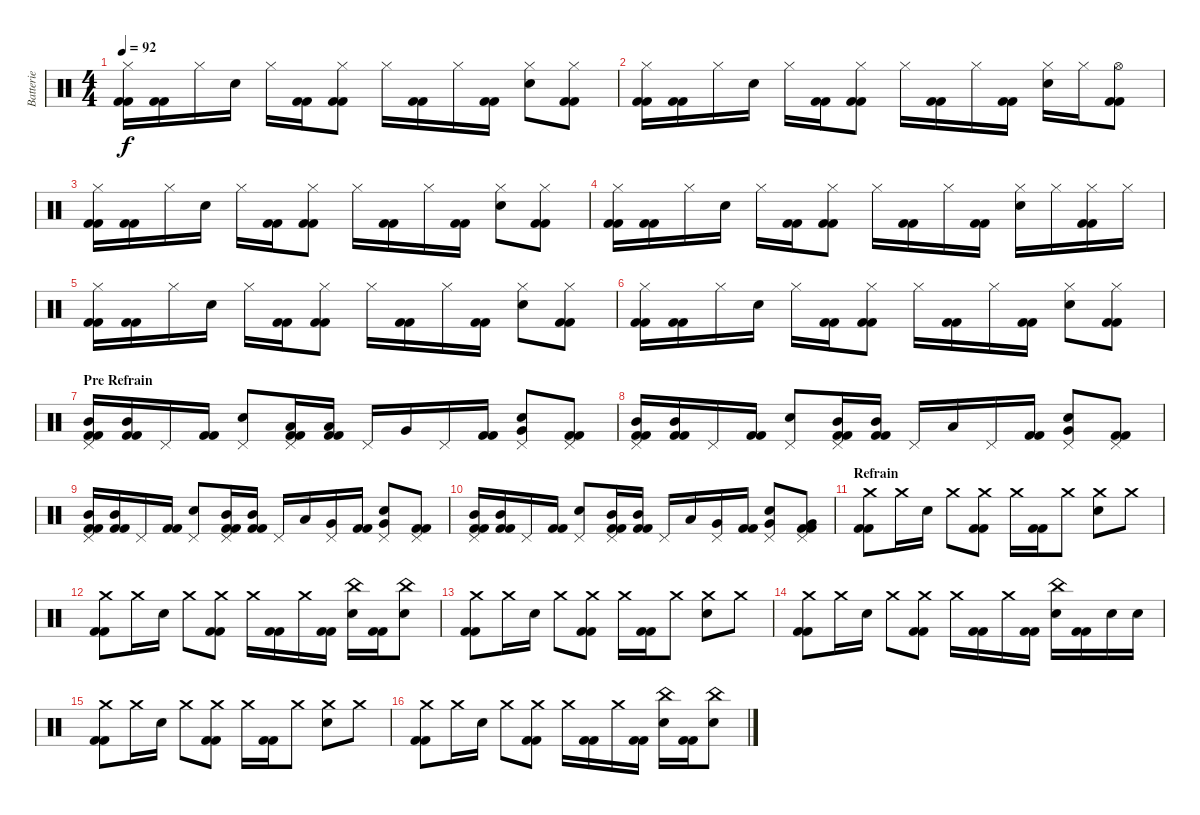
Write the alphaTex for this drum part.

\track ("Batterie" "Batterie") {instrument percussion}
\staff {score}
\articulation defaults
\ts (4 4)
\tempo 92
\clef neutral
\ks c
("Kick (hit) 2" "Hi-Hat (closed)" "Kick (hit) 2").16{dy f} ("Kick (hit) 2" "Kick (hit) 2").16 "Hi-Hat (closed)".16 "Electric Snare (hit)".16 "Hi-Hat (closed)".16 ("Kick (hit) 2" "Kick (hit) 2").16 ("Kick (hit) 2" "Hi-Hat (closed)" "Kick (hit) 2").8 "Hi-Hat (closed)".16 ("Kick (hit) 2" "Kick (hit) 2").16 "Hi-Hat (closed)".16 ("Kick (hit) 2" "Kick (hit) 2").16 ("Hi-Hat (closed)" "Electric Snare (hit)").8 ("Kick (hit) 2" "Hi-Hat (closed)" "Kick (hit) 2").8 |
("Kick (hit) 2" "Hi-Hat (closed)" "Kick (hit) 2").16 ("Kick (hit) 2" "Kick (hit) 2").16 "Hi-Hat (closed)".16 "Electric Snare (hit)".16 "Hi-Hat (closed)".16 ("Kick (hit) 2" "Kick (hit) 2").16 ("Kick (hit) 2" "Hi-Hat (closed)" "Kick (hit) 2").8 "Hi-Hat (closed)".16 ("Kick (hit) 2" "Kick (hit) 2").16 "Hi-Hat (closed)".16 ("Kick (hit) 2" "Kick (hit) 2").16 ("Hi-Hat (closed)" "Electric Snare (hit)").16 "Hi-Hat (closed)".16 ("Kick (hit) 2" "Hi-Hat (open)" "Kick (hit) 2").8 |
("Kick (hit) 2" "Hi-Hat (closed)" "Kick (hit) 2").16 ("Kick (hit) 2" "Kick (hit) 2").16 "Hi-Hat (closed)".16 "Electric Snare (hit)".16 "Hi-Hat (closed)".16 ("Kick (hit) 2" "Kick (hit) 2").16 ("Kick (hit) 2" "Hi-Hat (closed)" "Kick (hit) 2").8 "Hi-Hat (closed)".16 ("Kick (hit) 2" "Kick (hit) 2").16 "Hi-Hat (closed)".16 ("Kick (hit) 2" "Kick (hit) 2").16 ("Hi-Hat (closed)" "Electric Snare (hit)").8 ("Kick (hit) 2" "Hi-Hat (closed)" "Kick (hit) 2").8 |
("Kick (hit) 2" "Hi-Hat (closed)" "Kick (hit) 2").16 ("Kick (hit) 2" "Kick (hit) 2").16 "Hi-Hat (closed)".16 "Electric Snare (hit)".16 "Hi-Hat (closed)".16 ("Kick (hit) 2" "Kick (hit) 2").16 ("Kick (hit) 2" "Hi-Hat (closed)" "Kick (hit) 2").8 "Hi-Hat (closed)".16 ("Kick (hit) 2" "Kick (hit) 2").16 "Hi-Hat (closed)".16 ("Kick (hit) 2" "Kick (hit) 2").16 ("Hi-Hat (closed)" "Electric Snare (hit)").16 "Hi-Hat (closed)".16 ("Kick (hit) 2" "Hi-Hat (closed)" "Kick (hit) 2").16 "Hi-Hat (closed)".16 |
("Kick (hit) 2" "Hi-Hat (closed)" "Kick (hit) 2").16 ("Kick (hit) 2" "Kick (hit) 2").16 "Hi-Hat (closed)".16 "Electric Snare (hit)".16 "Hi-Hat (closed)".16 ("Kick (hit) 2" "Kick (hit) 2").16 ("Kick (hit) 2" "Hi-Hat (closed)" "Kick (hit) 2").8 "Hi-Hat (closed)".16 ("Kick (hit) 2" "Kick (hit) 2").16 "Hi-Hat (closed)".16 ("Kick (hit) 2" "Kick (hit) 2").16 ("Hi-Hat (closed)" "Electric Snare (hit)").8 ("Kick (hit) 2" "Hi-Hat (closed)" "Kick (hit) 2").8 |
("Kick (hit) 2" "Hi-Hat (closed)" "Kick (hit) 2").16 ("Kick (hit) 2" "Kick (hit) 2").16 "Hi-Hat (closed)".16 "Electric Snare (hit)".16 "Hi-Hat (closed)".16 ("Kick (hit) 2" "Kick (hit) 2").16 ("Kick (hit) 2" "Hi-Hat (closed)" "Kick (hit) 2").8 "Hi-Hat (closed)".16 ("Kick (hit) 2" "Kick (hit) 2").16 "Hi-Hat (closed)".16 ("Kick (hit) 2" "Kick (hit) 2").16 ("Hi-Hat (closed)" "Electric Snare (hit)").8 ("Kick (hit) 2" "Hi-Hat (closed)" "Kick (hit) 2").8 |
\section ("" "Pre Refrain")
("Kick (hit) 2" "Pedal Hi-Hat (hit)" "Mid Tom (hit)" "Kick (hit) 2").16 ("Kick (hit) 2" "Mid Tom (hit)" "Kick (hit) 2").16 "Pedal Hi-Hat (hit)".16 ("Kick (hit) 2" "Kick (hit) 2").16 ("Pedal Hi-Hat (hit)" "Electric Snare (hit)").8 ("Kick (hit) 2" "Pedal Hi-Hat (hit)" "Low Tom (hit)" "Kick (hit) 2").16 ("Kick (hit) 2" "Low Tom (hit)" "Kick (hit) 2").16 "Pedal Hi-Hat (hit)".16 "Very Low Tom (hit)".16 "Pedal Hi-Hat (hit)".16 ("Kick (hit) 2" "Kick (hit) 2").16 ("Pedal Hi-Hat (hit)" "Very Low Tom (hit)" "Electric Snare (hit)").8 ("Kick (hit) 2" "Pedal Hi-Hat (hit)" "Kick (hit) 2").8 |
("Kick (hit) 2" "Pedal Hi-Hat (hit)" "Mid Tom (hit)" "Kick (hit) 2").16 ("Kick (hit) 2" "Mid Tom (hit)" "Kick (hit) 2").16 "Pedal Hi-Hat (hit)".16 ("Kick (hit) 2" "Kick (hit) 2").16 ("Pedal Hi-Hat (hit)" "Electric Snare (hit)").8 ("Kick (hit) 2" "Pedal Hi-Hat (hit)" "Mid Tom (hit)" "Kick (hit) 2").16 ("Kick (hit) 2" "Mid Tom (hit)" "Kick (hit) 2").16 "Pedal Hi-Hat (hit)".16 "Low Tom (hit)".16 "Pedal Hi-Hat (hit)".16 ("Kick (hit) 2" "Kick (hit) 2").16 ("Pedal Hi-Hat (hit)" "Very Low Tom (hit)" "Electric Snare (hit)").8 ("Kick (hit) 2" "Pedal Hi-Hat (hit)" "Kick (hit) 2").8 |
("Kick (hit) 2" "Pedal Hi-Hat (hit)" "Mid Tom (hit)" "Kick (hit) 2").16 ("Kick (hit) 2" "Mid Tom (hit)" "Kick (hit) 2").16 "Pedal Hi-Hat (hit)".16 ("Kick (hit) 2" "Kick (hit) 2").16 ("Pedal Hi-Hat (hit)" "Electric Snare (hit)").8 ("Kick (hit) 2" "Pedal Hi-Hat (hit)" "Mid Tom (hit)" "Kick (hit) 2").16 ("Kick (hit) 2" "Mid Tom (hit)" "Kick (hit) 2").16 "Pedal Hi-Hat (hit)".16 "Low Tom (hit)".16 ("Pedal Hi-Hat (hit)" "Very Low Tom (hit)").16 ("Kick (hit) 2" "Kick (hit) 2").16 ("Pedal Hi-Hat (hit)" "Very Low Tom (hit)" "Electric Snare (hit)").8 ("Kick (hit) 2" "Pedal Hi-Hat (hit)" "Kick (hit) 2").8 |
("Kick (hit) 2" "Pedal Hi-Hat (hit)" "Mid Tom (hit)" "Kick (hit) 2").16 ("Kick (hit) 2" "Mid Tom (hit)" "Kick (hit) 2").16 "Pedal Hi-Hat (hit)".16 ("Kick (hit) 2" "Kick (hit) 2").16 ("Pedal Hi-Hat (hit)" "Electric Snare (hit)").8 ("Kick (hit) 2" "Pedal Hi-Hat (hit)" "Mid Tom (hit)" "Kick (hit) 2").16 ("Kick (hit) 2" "Mid Tom (hit)" "Kick (hit) 2").16 "Pedal Hi-Hat (hit)".16 "Low Tom (hit)".16 ("Pedal Hi-Hat (hit)" "Very Low Tom (hit)").16 ("Kick (hit) 2" "Kick (hit) 2").16 ("Pedal Hi-Hat (hit)" "Very Low Tom (hit)" "Electric Snare (hit)").8 ("Kick (hit) 2" "Pedal Hi-Hat (hit)" "Very Low Tom (hit)" "Kick (hit) 2").8 |
\section ("" "Refrain")
("Kick (hit) 2" "Crash medium (hit)" "Kick (hit) 2").8 "Crash medium (hit)".16 "Electric Snare (hit)".16 "Crash medium (hit)".8 ("Kick (hit) 2" "Crash medium (hit)" "Kick (hit) 2").8 "Crash medium (hit)".16 ("Kick (hit) 2" "Kick (hit) 2").16 "Crash medium (hit)".8 ("Crash medium (hit)" "Electric Snare (hit)").8 "Crash medium (hit)".8 |
("Kick (hit) 2" "Crash medium (hit)" "Kick (hit) 2").8 "Crash medium (hit)".16 "Electric Snare (hit)".16 "Crash medium (hit)".8 ("Kick (hit) 2" "Crash medium (hit)" "Kick (hit) 2").8 "Crash medium (hit)".16 ("Kick (hit) 2" "Kick (hit) 2").16 "Crash medium (hit)".16 ("Kick (hit) 2" "Kick (hit) 2").16 ("China (hit)" "Electric Snare (hit)").16 ("Kick (hit) 2" "Kick (hit) 2").16 ("China (hit)" "Electric Snare (hit)").8 |
("Kick (hit) 2" "Crash medium (hit)" "Kick (hit) 2").8 "Crash medium (hit)".16 "Electric Snare (hit)".16 "Crash medium (hit)".8 ("Kick (hit) 2" "Crash medium (hit)" "Kick (hit) 2").8 "Crash medium (hit)".16 ("Kick (hit) 2" "Kick (hit) 2").16 "Crash medium (hit)".8 ("Crash medium (hit)" "Electric Snare (hit)").8 "Crash medium (hit)".8 |
("Kick (hit) 2" "Crash medium (hit)" "Kick (hit) 2").8 "Crash medium (hit)".16 "Electric Snare (hit)".16 "Crash medium (hit)".8 ("Kick (hit) 2" "Crash medium (hit)" "Kick (hit) 2").8 "Crash medium (hit)".16 ("Kick (hit) 2" "Kick (hit) 2").16 "Crash medium (hit)".16 ("Kick (hit) 2" "Kick (hit) 2").16 ("China (hit)" "Electric Snare (hit)").16 ("Kick (hit) 2" "Kick (hit) 2").16 "Electric Snare (hit)".16 "Electric Snare (hit)".16 |
("Kick (hit) 2" "Crash medium (hit)" "Kick (hit) 2").8 "Crash medium (hit)".16 "Electric Snare (hit)".16 "Crash medium (hit)".8 ("Kick (hit) 2" "Crash medium (hit)" "Kick (hit) 2").8 "Crash medium (hit)".16 ("Kick (hit) 2" "Kick (hit) 2").16 "Crash medium (hit)".8 ("Crash medium (hit)" "Electric Snare (hit)").8 "Crash medium (hit)".8 |
("Kick (hit) 2" "Crash medium (hit)" "Kick (hit) 2").8 "Crash medium (hit)".16 "Electric Snare (hit)".16 "Crash medium (hit)".8 ("Kick (hit) 2" "Crash medium (hit)" "Kick (hit) 2").8 "Crash medium (hit)".16 ("Kick (hit) 2" "Kick (hit) 2").16 "Crash medium (hit)".16 ("Kick (hit) 2" "Kick (hit) 2").16 ("China (hit)" "Electric Snare (hit)").16 ("Kick (hit) 2" "Kick (hit) 2").16 ("China (hit)" "Electric Snare (hit)").8
